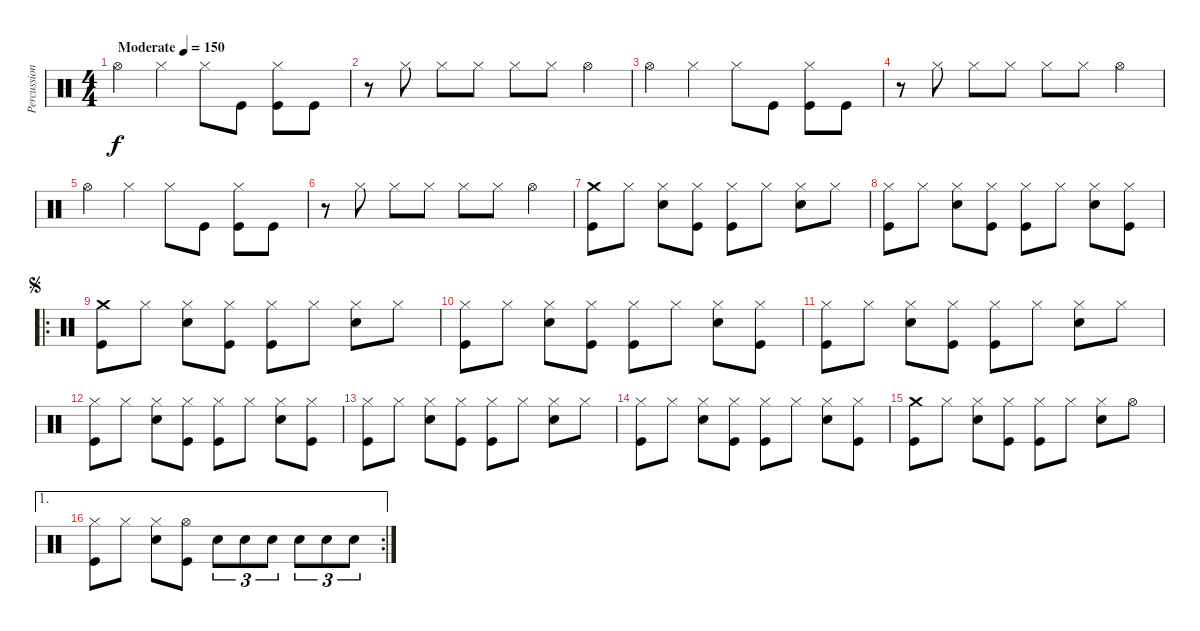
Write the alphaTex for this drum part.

\track ("Percussions" "Percussion") {instrument percussion}
\staff {score}
\articulation defaults
\ts (4 4)
\tempo (150 "Moderate")
\clef neutral
\ks c "Hi-Hat (open)".4{dy f} "Hi-Hat (closed)".4 "Hi-Hat (closed)".8 "Kick (hit)".8
("Hi-Hat (closed)" "Kick (hit)").8 "Kick (hit)".8 |
r.8 "Hi-Hat (closed)".8 "Hi-Hat (closed)".8 "Hi-Hat (closed)".8 "Hi-Hat (closed)".8 "Hi-Hat (closed)".8 "Hi-Hat (open)".4 |
"Hi-Hat (open)".4 "Hi-Hat (closed)".4 "Hi-Hat (closed)".8 "Kick (hit)".8 ("Hi-Hat (closed)" "Kick (hit)").8 "Kick (hit)".8 |
r.8 "Hi-Hat (closed)".8 "Hi-Hat (closed)".8 "Hi-Hat (closed)".8 "Hi-Hat (closed)".8 "Hi-Hat (closed)".8 "Hi-Hat (open)".4 |
"Hi-Hat (open)".4 "Hi-Hat (closed)".4 "Hi-Hat (closed)".8 "Kick (hit)".8 ("Hi-Hat (closed)" "Kick (hit)").8 "Kick (hit)".8 |
r.8 "Hi-Hat (closed)".8 "Hi-Hat (closed)".8 "Hi-Hat (closed)".8 "Hi-Hat (closed)".8 "Hi-Hat (closed)".8 "Hi-Hat (open)".4 |
("Crash medium (hit)" "Kick (hit)").8 "Hi-Hat (closed)".8 ("Hi-Hat (closed)" "Snare (hit) 2").8 ("Hi-Hat (closed)" "Kick (hit)").8 ("Hi-Hat (closed)" "Kick (hit)").8 "Hi-Hat (closed)".8 ("Hi-Hat (closed)" "Snare (hit) 2").8 "Hi-Hat (closed)".8 |
("Hi-Hat (closed)" "Kick (hit)").8 "Hi-Hat (closed)".8 ("Hi-Hat (closed)" "Snare (hit) 2").8 ("Hi-Hat (closed)" "Kick (hit)").8 ("Hi-Hat (closed)" "Kick (hit)").8 "Hi-Hat (closed)".8 ("Hi-Hat (closed)" "Snare (hit) 2").8 ("Hi-Hat (closed)" "Kick (hit)").8 |
\ro
\jump segno
("Crash medium (hit)" "Kick (hit)").8 "Hi-Hat (closed)".8 ("Hi-Hat (closed)" "Snare (hit) 2").8 ("Hi-Hat (closed)" "Kick (hit)").8 ("Hi-Hat (closed)" "Kick (hit)").8 "Hi-Hat (closed)".8 ("Hi-Hat (closed)" "Snare (hit) 2").8 "Hi-Hat (closed)".8 |
("Hi-Hat (closed)" "Kick (hit)").8 "Hi-Hat (closed)".8 ("Hi-Hat (closed)" "Snare (hit) 2").8 ("Hi-Hat (closed)" "Kick (hit)").8 ("Hi-Hat (closed)" "Kick (hit)").8 "Hi-Hat (closed)".8 ("Hi-Hat (closed)" "Snare (hit) 2").8 ("Hi-Hat (closed)" "Kick (hit)").8 |
("Hi-Hat (closed)" "Kick (hit)").8 "Hi-Hat (closed)".8 ("Hi-Hat (closed)" "Snare (hit) 2").8 ("Hi-Hat (closed)" "Kick (hit)").8 ("Hi-Hat (closed)" "Kick (hit)").8 "Hi-Hat (closed)".8 ("Hi-Hat (closed)" "Snare (hit) 2").8 "Hi-Hat (closed)".8 |
("Hi-Hat (closed)" "Kick (hit)").8 "Hi-Hat (closed)".8 ("Hi-Hat (closed)" "Snare (hit) 2").8 ("Hi-Hat (closed)" "Kick (hit)").8 ("Hi-Hat (closed)" "Kick (hit)").8 "Hi-Hat (closed)".8 ("Hi-Hat (closed)" "Snare (hit) 2").8 ("Hi-Hat (closed)" "Kick (hit)").8 |
("Hi-Hat (closed)" "Kick (hit)").8 "Hi-Hat (closed)".8 ("Hi-Hat (closed)" "Snare (hit) 2").8 ("Hi-Hat (closed)" "Kick (hit)").8 ("Hi-Hat (closed)" "Kick (hit)").8 "Hi-Hat (closed)".8 ("Hi-Hat (closed)" "Snare (hit) 2").8 "Hi-Hat (closed)".8 |
("Hi-Hat (closed)" "Kick (hit)").8 "Hi-Hat (closed)".8 ("Hi-Hat (closed)" "Snare (hit) 2").8 ("Hi-Hat (closed)" "Kick (hit)").8 ("Hi-Hat (closed)" "Kick (hit)").8 "Hi-Hat (closed)".8 ("Hi-Hat (closed)" "Snare (hit) 2").8 ("Hi-Hat (closed)" "Kick (hit)").8 |
("Crash medium (hit)" "Kick (hit)").8 "Hi-Hat (closed)".8 ("Hi-Hat (closed)" "Snare (hit) 2").8 ("Hi-Hat (closed)" "Kick (hit)").8 ("Hi-Hat (closed)" "Kick (hit)").8 "Hi-Hat (closed)".8 ("Hi-Hat (closed)" "Snare (hit) 2").8 "Hi-Hat (open)".8 |
\ae 1
\rc 2
("Hi-Hat (closed)" "Kick (hit)").8 "Hi-Hat (closed)".8 ("Hi-Hat (closed)" "Snare (hit) 2").8 ("Hi-Hat (open)" "Kick (hit)").8 "Snare (hit) 2".8{tu (3 2)} "Snare (hit) 2".8{tu (3 2)} "Snare (hit) 2".8{tu (3 2)} "Snare (hit) 2".8{tu (3 2)} "Snare (hit) 2".8{tu (3 2)} "Snare (hit) 2".8{tu (3 2)}
